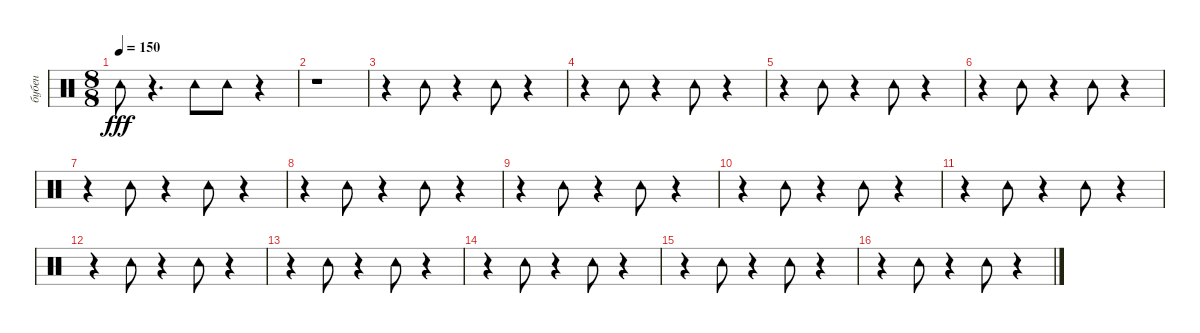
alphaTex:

\track ("бубен" "бубен") {instrument percussion}
\staff {score}
\articulation defaults
\ts (8 8)
\tempo 150
\clef neutral
\ks c "Tambourine (hit)".8{dy fff}
r.4{d} "Tambourine (hit)".8 "Tambourine (hit)".8 r.4 |
r.1 |
r.4 "Tambourine (hit)".8 r.4 "Tambourine (hit)".8 r.4 |
r.4 "Tambourine (hit)".8 r.4 "Tambourine (hit)".8 r.4 |
r.4 "Tambourine (hit)".8 r.4 "Tambourine (hit)".8 r.4 |
r.4 "Tambourine (hit)".8 r.4 "Tambourine (hit)".8 r.4 |
r.4 "Tambourine (hit)".8 r.4 "Tambourine (hit)".8 r.4 |
r.4 "Tambourine (hit)".8 r.4 "Tambourine (hit)".8 r.4 |
r.4 "Tambourine (hit)".8 r.4 "Tambourine (hit)".8 r.4 |
r.4 "Tambourine (hit)".8 r.4 "Tambourine (hit)".8 r.4 |
r.4 "Tambourine (hit)".8 r.4 "Tambourine (hit)".8 r.4 |
r.4 "Tambourine (hit)".8 r.4 "Tambourine (hit)".8 r.4 |
r.4 "Tambourine (hit)".8 r.4 "Tambourine (hit)".8 r.4 |
r.4 "Tambourine (hit)".8 r.4 "Tambourine (hit)".8 r.4 |
r.4 "Tambourine (hit)".8 r.4 "Tambourine (hit)".8 r.4 |
r.4 "Tambourine (hit)".8 r.4 "Tambourine (hit)".8 r.4
